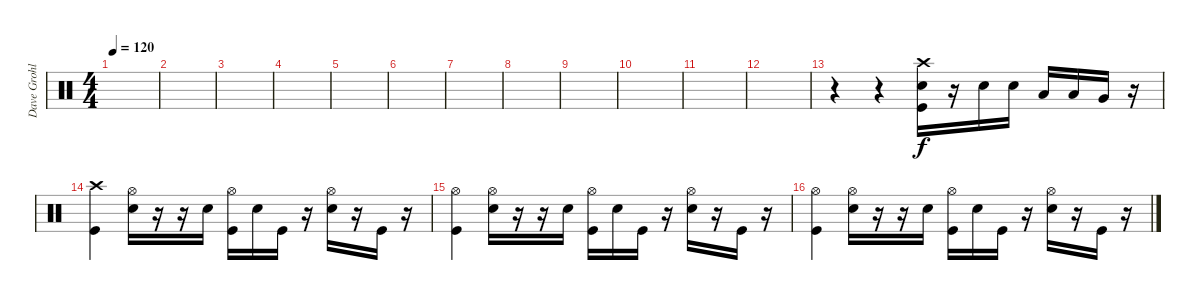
\track ("Dave Grohl (Drums)" "Dave Grohl") {instrument percussion}
\staff {score}
\articulation defaults
\ts (4 4)
\tempo 120
\clef neutral
\ks c
|
|
|
|
|
|
|
|
|
|
|
|
r.4 r.4 ("Crash high (hit)" "Snare (hit) 2" "Kick (hit)").16 r.16 "Snare (hit) 2".16 "Snare (hit) 2".16 "Low Floor Tom (hit)".16 "Low Floor Tom (hit)".16 "Very Low Tom (hit)".16 r.16 |
("Crash high (hit)" "Kick (hit)").4 ("Hi-Hat (open)" "Snare (hit) 2").16 r.16 r.16 "Snare (hit) 2".16 ("Hi-Hat (open)" "Kick (hit)").16 "Snare (hit) 2".16 "Kick (hit)".16 r.16 ("Hi-Hat (open)" "Snare (hit) 2").16 r.16 "Kick (hit)".16 r.16 |
("Hi-Hat (open)" "Kick (hit)").4 ("Hi-Hat (open)" "Snare (hit) 2").16 r.16 r.16 "Snare (hit) 2".16 ("Hi-Hat (open)" "Kick (hit)").16 "Snare (hit) 2".16 "Kick (hit)".16 r.16 ("Hi-Hat (open)" "Snare (hit) 2").16 r.16 "Kick (hit)".16 r.16 |
("Hi-Hat (open)" "Kick (hit)").4 ("Hi-Hat (open)" "Snare (hit) 2").16 r.16 r.16 "Snare (hit) 2".16 ("Hi-Hat (open)" "Kick (hit)").16 "Snare (hit) 2".16 "Kick (hit)".16 r.16 ("Hi-Hat (open)" "Snare (hit) 2").16 r.16 "Kick (hit)".16 r.16
